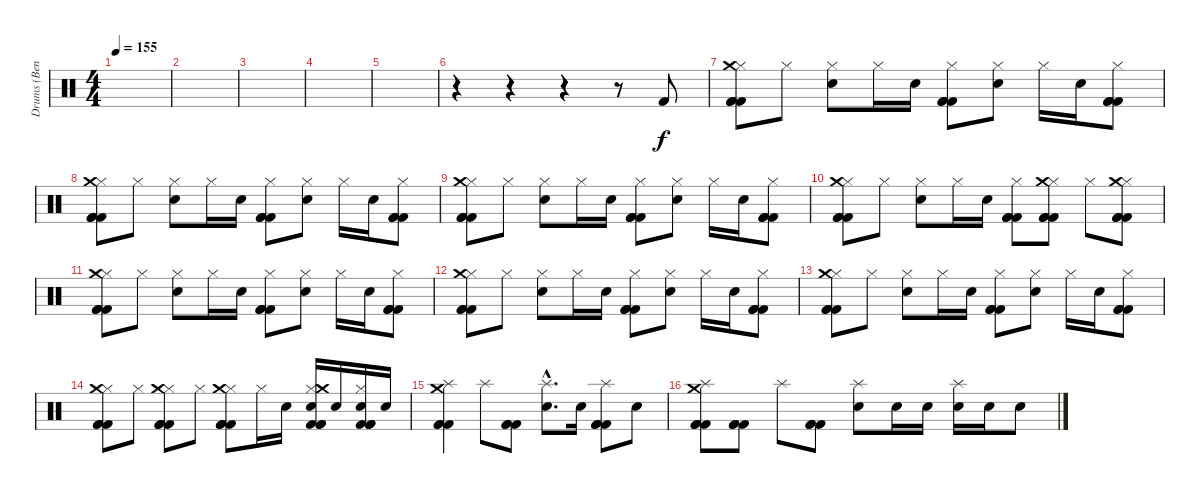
\track ("Drums (Ben)" "Drums (Ben") {instrument percussion}
\staff {score}
\articulation defaults
\ts (4 4)
\tempo 155
\clef neutral
\ks c
|
|
|
|
|
r.4 r.4 r.4 r.8 "Kick (hit) 2".8 |
("Hi-Hat (closed)" "Kick (hit) 2" "Kick (hit) 2" "Kick (hit) 2" "Crash medium (hit)").8 "Hi-Hat (closed)".8 ("Hi-Hat (closed)" "Electric Snare (hit)").8 "Hi-Hat (closed)".16 "Electric Snare (hit)".16 ("Hi-Hat (closed)" "Kick (hit) 2" "Kick (hit) 2" "Kick (hit) 2").8 ("Hi-Hat (closed)" "Electric Snare (hit)").8 "Hi-Hat (closed)".16 "Electric Snare (hit)".16 ("Hi-Hat (closed)" "Kick (hit) 2" "Kick (hit) 2" "Kick (hit) 2").8 |
("Hi-Hat (closed)" "Kick (hit) 2" "Kick (hit) 2" "Kick (hit) 2" "Crash medium (hit)").8 "Hi-Hat (closed)".8 ("Hi-Hat (closed)" "Electric Snare (hit)").8 "Hi-Hat (closed)".16 "Electric Snare (hit)".16 ("Hi-Hat (closed)" "Kick (hit) 2" "Kick (hit) 2" "Kick (hit) 2").8 ("Hi-Hat (closed)" "Electric Snare (hit)").8 "Hi-Hat (closed)".16 "Electric Snare (hit)".16 ("Hi-Hat (closed)" "Kick (hit) 2" "Kick (hit) 2" "Kick (hit) 2").8 |
("Hi-Hat (closed)" "Kick (hit) 2" "Kick (hit) 2" "Kick (hit) 2" "Crash medium (hit)").8 "Hi-Hat (closed)".8 ("Hi-Hat (closed)" "Electric Snare (hit)").8 "Hi-Hat (closed)".16 "Electric Snare (hit)".16 ("Hi-Hat (closed)" "Kick (hit) 2" "Kick (hit) 2" "Kick (hit) 2").8 ("Hi-Hat (closed)" "Electric Snare (hit)").8 "Hi-Hat (closed)".16 "Electric Snare (hit)".16 ("Hi-Hat (closed)" "Kick (hit) 2" "Kick (hit) 2" "Kick (hit) 2").8 |
("Hi-Hat (closed)" "Kick (hit) 2" "Kick (hit) 2" "Kick (hit) 2" "Crash medium (hit)").8 "Hi-Hat (closed)".8 ("Hi-Hat (closed)" "Electric Snare (hit)").8 "Hi-Hat (closed)".16 "Electric Snare (hit)".16 ("Hi-Hat (closed)" "Kick (hit) 2" "Kick (hit) 2" "Kick (hit) 2").8 ("Hi-Hat (closed)" "Kick (hit) 2" "Kick (hit) 2" "Kick (hit) 2" "Crash medium (hit)").8 "Hi-Hat (closed)".8 ("Hi-Hat (closed)" "Kick (hit) 2" "Kick (hit) 2" "Kick (hit) 2" "Crash medium (hit)").8 |
("Hi-Hat (closed)" "Kick (hit) 2" "Kick (hit) 2" "Kick (hit) 2" "Crash medium (hit)").8 "Hi-Hat (closed)".8 ("Hi-Hat (closed)" "Electric Snare (hit)").8 "Hi-Hat (closed)".16 "Electric Snare (hit)".16 ("Hi-Hat (closed)" "Kick (hit) 2" "Kick (hit) 2" "Kick (hit) 2").8 ("Hi-Hat (closed)" "Electric Snare (hit)").8 "Hi-Hat (closed)".16 "Electric Snare (hit)".16 ("Hi-Hat (closed)" "Kick (hit) 2" "Kick (hit) 2" "Kick (hit) 2").8 |
("Hi-Hat (closed)" "Kick (hit) 2" "Kick (hit) 2" "Kick (hit) 2" "Crash medium (hit)").8 "Hi-Hat (closed)".8 ("Hi-Hat (closed)" "Electric Snare (hit)").8 "Hi-Hat (closed)".16 "Electric Snare (hit)".16 ("Hi-Hat (closed)" "Kick (hit) 2" "Kick (hit) 2" "Kick (hit) 2").8 ("Hi-Hat (closed)" "Electric Snare (hit)").8 "Hi-Hat (closed)".16 "Electric Snare (hit)".16 ("Hi-Hat (closed)" "Kick (hit) 2" "Kick (hit) 2" "Kick (hit) 2").8 |
("Hi-Hat (closed)" "Kick (hit) 2" "Kick (hit) 2" "Kick (hit) 2" "Crash medium (hit)").8 "Hi-Hat (closed)".8 ("Hi-Hat (closed)" "Electric Snare (hit)").8 "Hi-Hat (closed)".16 "Electric Snare (hit)".16 ("Hi-Hat (closed)" "Kick (hit) 2" "Kick (hit) 2" "Kick (hit) 2").8 ("Hi-Hat (closed)" "Electric Snare (hit)").8 "Hi-Hat (closed)".16 "Electric Snare (hit)".16 ("Hi-Hat (closed)" "Kick (hit) 2" "Kick (hit) 2" "Kick (hit) 2").8 |
("Hi-Hat (closed)" "Kick (hit) 2" "Kick (hit) 2" "Kick (hit) 2" "Crash medium (hit)").8{volume 16} "Hi-Hat (closed)".8 ("Hi-Hat (closed)" "Kick (hit) 2" "Kick (hit) 2" "Kick (hit) 2" "Crash medium (hit)").8 "Hi-Hat (closed)".8 ("Hi-Hat (closed)" "Kick (hit) 2" "Kick (hit) 2" "Kick (hit) 2" "Crash medium (hit)").8 "Hi-Hat (closed)".16 "Electric Snare (hit)".16 ("Hi-Hat (closed)" "Kick (hit) 2" "Electric Snare (hit)" "Kick (hit) 2" "Kick (hit) 2" "Crash medium (hit)").16 "Electric Snare (hit)".16 ("Hi-Hat (closed)" "Kick (hit) 2" "Electric Snare (hit)" "Kick (hit) 2" "Kick (hit) 2").16 "Electric Snare (hit)".16 |
("Splash (hit)" "Kick (hit) 2" "Kick (hit) 2" "Kick (hit) 2" "Crash medium (hit)").4 "Splash (hit)".8 ("Kick (hit) 2" "Kick (hit) 2" "Kick (hit) 2").8 ("Splash (hit)"{hac} "Electric Snare (hit)"{hac}).8{d} "Electric Snare (hit)".16 ("Splash (hit)" "Kick (hit) 2" "Kick (hit) 2" "Kick (hit) 2").8 "Electric Snare (hit)".8 |
("Splash (hit)" "Kick (hit) 2" "Kick (hit) 2" "Kick (hit) 2" "Crash medium (hit)").8 ("Kick (hit) 2" "Kick (hit) 2" "Kick (hit) 2").8 "Splash (hit)".8 ("Kick (hit) 2" "Kick (hit) 2" "Kick (hit) 2").8 ("Splash (hit)" "Electric Snare (hit)").8 "Electric Snare (hit)".16 "Electric Snare (hit)".16 ("Splash (hit)" "Electric Snare (hit)").16 "Electric Snare (hit)".16 "Electric Snare (hit)".8
